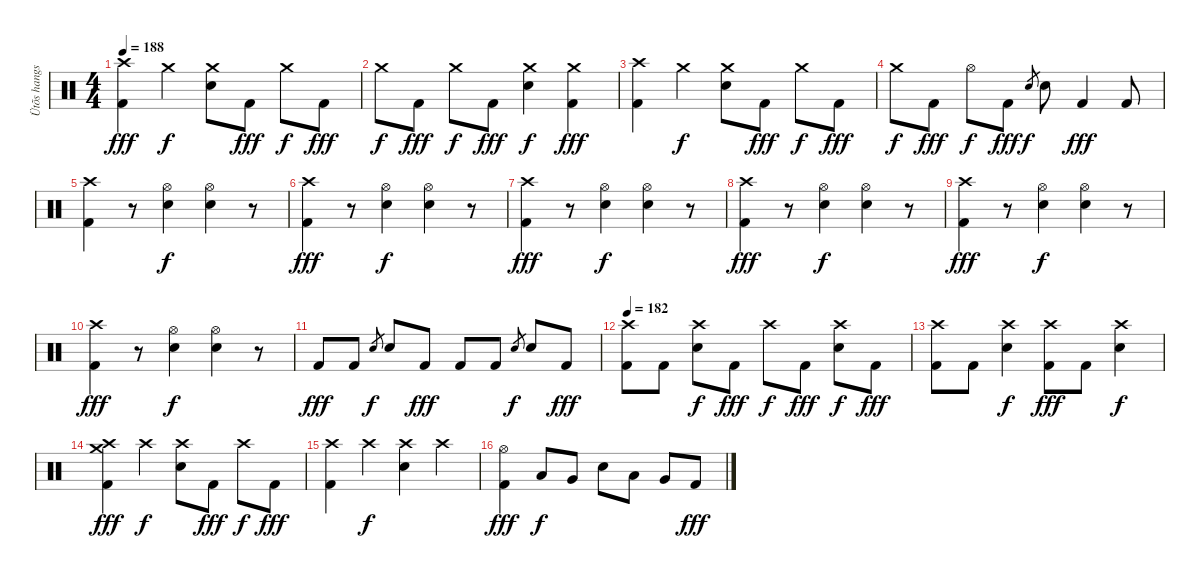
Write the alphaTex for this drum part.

\track ("Ütõs hangszer" "Ütõs hangs") {instrument percussion}
\staff {score}
\articulation defaults
\ts (4 4)
\tempo 188
\clef neutral
\ks c
("Crash high (hit)" "Kick (hit) 2").4{dy fff} "Crash medium (hit)".4{dy f} ("Crash medium (hit)" "Electric Snare (hit)").8 "Kick (hit) 2".8{dy fff} "Crash medium (hit)".8{dy f} "Kick (hit) 2".8{dy fff} |
"Crash medium (hit)".8{dy f} "Kick (hit) 2".8{dy fff} "Crash medium (hit)".8{dy f} "Kick (hit) 2".8{dy fff} ("Crash medium (hit)" "Electric Snare (hit)").4{dy f} ("Crash medium (hit)" "Kick (hit) 2").4{dy fff} |
("Crash high (hit)" "Kick (hit) 2").4 "Crash medium (hit)".4{dy f} ("Crash medium (hit)" "Electric Snare (hit)").8 "Kick (hit) 2".8{dy fff} "Crash medium (hit)".8{dy f} "Kick (hit) 2".8{dy fff} |
"Crash medium (hit)".8{dy f} "Kick (hit) 2".8{dy fff} "Hi-Hat (open)".8{dy f} "Kick (hit) 2".8{dy fff} "Electric Snare (hit)".8{gr dy f} "Electric Snare (hit)".8 "Kick (hit) 2".4{dy fff} "Kick (hit) 2".8 |
("Crash high (hit)" "Kick (hit) 2").4 r.8 ("Hi-Hat (open)" "Electric Snare (hit)").4{dy f} ("Hi-Hat (open)" "Electric Snare (hit)").4 r.8 |
("Crash high (hit)" "Kick (hit) 2").4{dy fff} r.8 ("Hi-Hat (open)" "Electric Snare (hit)").4{dy f} ("Hi-Hat (open)" "Electric Snare (hit)").4 r.8 |
("Crash high (hit)" "Kick (hit) 2").4{dy fff} r.8 ("Hi-Hat (open)" "Electric Snare (hit)").4{dy f} ("Hi-Hat (open)" "Electric Snare (hit)").4 r.8 |
("Crash high (hit)" "Kick (hit) 2").4{dy fff} r.8 ("Hi-Hat (open)" "Electric Snare (hit)").4{dy f} ("Hi-Hat (open)" "Electric Snare (hit)").4 r.8 |
("Crash high (hit)" "Kick (hit) 2").4{dy fff} r.8 ("Hi-Hat (open)" "Electric Snare (hit)").4{dy f} ("Hi-Hat (open)" "Electric Snare (hit)").4 r.8 |
("Crash high (hit)" "Kick (hit) 2").4{dy fff} r.8 ("Hi-Hat (open)" "Electric Snare (hit)").4{dy f} ("Hi-Hat (open)" "Electric Snare (hit)").4 r.8 |
"Kick (hit) 2".8{dy fff} "Kick (hit) 2".8 "Electric Snare (hit)".8{gr dy f} "Electric Snare (hit)".8 "Kick (hit) 2".8{dy fff} "Kick (hit) 2".8 "Kick (hit) 2".8 "Electric Snare (hit)".8{gr dy f} "Electric Snare (hit)".8 "Kick (hit) 2".8{dy fff} |
\tempo 182
("Crash high (hit)" "Kick (hit) 2").8 "Kick (hit) 2".8 ("Crash high (hit)" "Electric Snare (hit)").8{dy f} "Kick (hit) 2".8{dy fff} "Crash high (hit)".8{dy f} "Kick (hit) 2".8{dy fff} ("Crash high (hit)" "Electric Snare (hit)").8{dy f} "Kick (hit) 2".8{dy fff} |
("Crash high (hit)" "Kick (hit) 2").8 "Kick (hit) 2".8 ("Crash high (hit)" "Electric Snare (hit)").4{dy f} ("Crash high (hit)" "Kick (hit) 2").8{dy fff} "Kick (hit) 2".8 ("Crash high (hit)" "Electric Snare (hit)").4{dy f} |
("Crash high (hit)" "Crash medium (hit)" "Kick (hit) 2").4{dy fff} "Crash high (hit)".4{dy f} ("Crash high (hit)" "Electric Snare (hit)").8 "Kick (hit) 2".8{dy fff} "Crash high (hit)".8{dy f} "Kick (hit) 2".8{dy fff} |
("Crash high (hit)" "Kick (hit) 2").4 "Crash high (hit)".4{dy f} ("Crash high (hit)" "Electric Snare (hit)").4 "Crash high (hit)".4 |
("Hi-Hat (open)" "Kick (hit) 2").4{dy fff} "Low Tom (hit)".8{dy f} "Very Low Tom (hit)".8 "Electric Snare (hit)".8 "Low Tom (hit)".8 "Very Low Tom (hit)".8 "Kick (hit) 2".8{dy fff}
